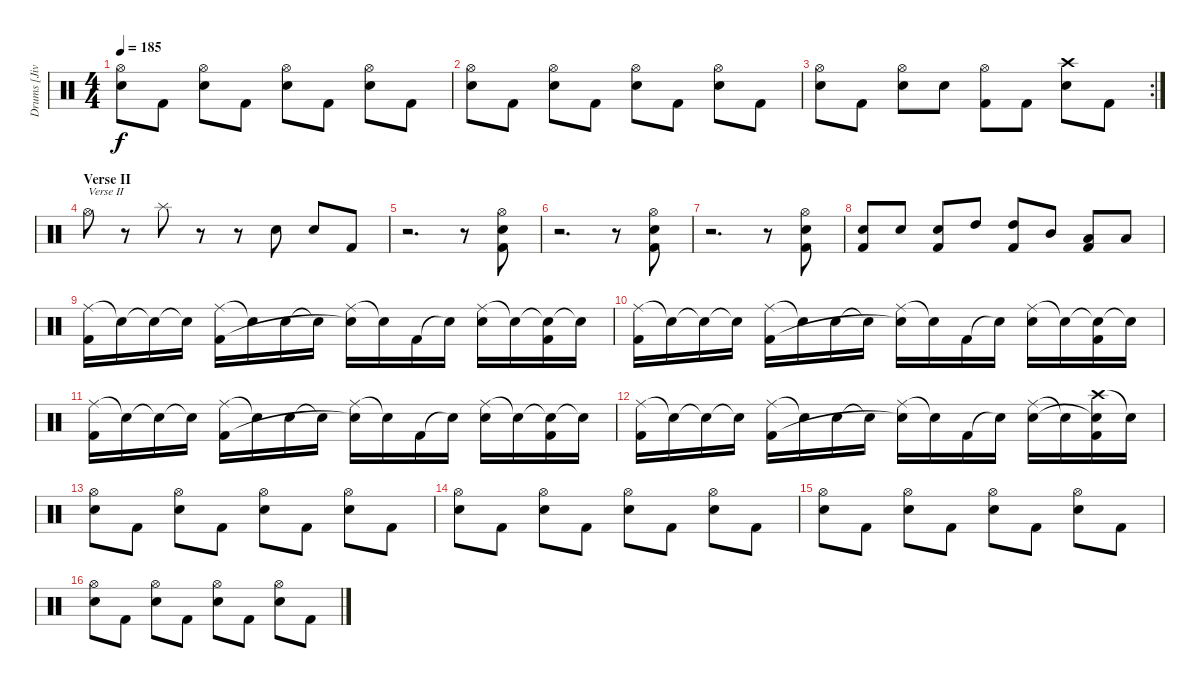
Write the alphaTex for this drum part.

\track ("Drums [Jivarp]" "Drums [Jiv") {instrument percussion}
\staff {score}
\articulation defaults
\ts (4 4)
\tempo 185
\clef neutral
\ks c
("Hi-Hat (open)" "Electric Snare (hit)").8{dy f} "Kick (hit) 2".8 ("Hi-Hat (open)" "Electric Snare (hit)").8 "Kick (hit) 2".8 ("Hi-Hat (open)" "Electric Snare (hit)").8 "Kick (hit) 2".8 ("Hi-Hat (open)" "Electric Snare (hit)").8 "Kick (hit) 2".8 |
("Hi-Hat (open)" "Electric Snare (hit)").8 "Kick (hit) 2".8 ("Hi-Hat (open)" "Electric Snare (hit)").8 "Kick (hit) 2".8 ("Hi-Hat (open)" "Electric Snare (hit)").8 "Kick (hit) 2".8 ("Hi-Hat (open)" "Electric Snare (hit)").8 "Kick (hit) 2".8 |
\rc 2
("Hi-Hat (open)" "Electric Snare (hit)").8 "Kick (hit) 2".8 ("Hi-Hat (open)" "Electric Snare (hit)").8 "Electric Snare (hit)".8 ("Hi-Hat (open)" "Kick (hit) 2").8 "Kick (hit) 2".8 ("Crash high (hit)" "Electric Snare (hit)").8 "Kick (hit) 2".8 |
\section ("" "Verse II")
"Hi-Hat (open)".8{txt "Verse II"} r.8 "Splash (hit)".8 r.8 r.8 "Electric Snare (hit)".8 "Electric Snare (hit)".8 "Kick (hit) 2".8 |
r.2{d} r.8 ("Hi-Hat (open)" "Electric Snare (hit)" "Kick (hit) 2").8 |
r.2{d} r.8 ("Hi-Hat (open)" "Electric Snare (hit)" "Kick (hit) 2").8 |
r.2{d} r.8 ("Hi-Hat (open)" "Electric Snare (hit)" "Kick (hit) 2").8 |
("Electric Snare (hit)" "Kick (hit) 2").8 "Electric Snare (hit)".8 ("Electric Snare (hit)" "Kick (hit) 2").8 "High Tom (hit)".8 ("High Tom (hit)" "Kick (hit) 2").8 "Mid Tom (hit)".8 ("Low Tom (hit)" "Kick (hit) 2").8 "Low Tom (hit)".8 |
("Ride (middle)" "Kick (hit) 2").16 "Snare (hit)"{t}.16 "Snare (hit)"{t}.16 "Snare (hit)"{t}.16 ("Ride (middle)" "Kick (hit) 2").16 "Snare (hit)"{t}.16 "Electric Snare (hit)".16 "Snare (hit)"{t}.16 ("Ride (middle)" "Snare (hit)"{t}).16 "Snare (hit)"{t}.16 "Kick (hit) 2".16 "Snare (hit)"{t}.16 ("Ride (middle)" "Electric Snare (hit)").16 "Snare (hit)"{t}.16 ("Snare (hit)"{t} "Kick (hit) 2").16 "Snare (hit)"{t}.16 |
("Ride (middle)" "Kick (hit) 2").16 "Snare (hit)"{t}.16 "Snare (hit)"{t}.16 "Snare (hit)"{t}.16 ("Ride (middle)" "Kick (hit) 2").16 "Snare (hit)"{t}.16 "Electric Snare (hit)".16 "Snare (hit)"{t}.16 ("Ride (middle)" "Snare (hit)"{t}).16 "Snare (hit)"{t}.16 "Kick (hit) 2".16 "Snare (hit)"{t}.16 ("Ride (middle)" "Electric Snare (hit)").16 "Snare (hit)"{t}.16 ("Snare (hit)"{t} "Kick (hit) 2").16 "Snare (hit)"{t}.16 |
("Ride (middle)" "Kick (hit) 2").16 "Snare (hit)"{t}.16 "Snare (hit)"{t}.16 "Snare (hit)"{t}.16 ("Ride (middle)" "Kick (hit) 2").16 "Snare (hit)"{t}.16 "Electric Snare (hit)".16 "Snare (hit)"{t}.16 ("Ride (middle)" "Snare (hit)"{t}).16 "Snare (hit)"{t}.16 "Kick (hit) 2".16 "Snare (hit)"{t}.16 ("Ride (middle)" "Electric Snare (hit)").16 "Snare (hit)"{t}.16 ("Snare (hit)"{t} "Kick (hit) 2").16 "Snare (hit)"{t}.16 |
("Ride (middle)" "Kick (hit) 2").16 "Snare (hit)"{t}.16 "Snare (hit)"{t}.16 "Snare (hit)"{t}.16 ("Ride (middle)" "Kick (hit) 2").16 "Snare (hit)"{t}.16 "Electric Snare (hit)".16 "Snare (hit)"{t}.16 ("Ride (middle)" "Snare (hit)"{t}).16 "Snare (hit)"{t}.16 "Kick (hit) 2".16 "Snare (hit)"{t}.16 ("Ride (middle)" "Electric Snare (hit)").16 "Snare (hit)"{t}.16 ("Crash high (hit)" "Snare (hit)"{t} "Kick (hit) 2").16 "Snare (hit)"{t}.16 |
("Hi-Hat (open)" "Electric Snare (hit)").8 "Kick (hit) 2".8 ("Hi-Hat (open)" "Electric Snare (hit)").8 "Kick (hit) 2".8 ("Hi-Hat (open)" "Electric Snare (hit)").8 "Kick (hit) 2".8 ("Hi-Hat (open)" "Electric Snare (hit)").8 "Kick (hit) 2".8 |
("Hi-Hat (open)" "Electric Snare (hit)").8 "Kick (hit) 2".8 ("Hi-Hat (open)" "Electric Snare (hit)").8 "Kick (hit) 2".8 ("Hi-Hat (open)" "Electric Snare (hit)").8 "Kick (hit) 2".8 ("Hi-Hat (open)" "Electric Snare (hit)").8 "Kick (hit) 2".8 |
("Hi-Hat (open)" "Electric Snare (hit)").8 "Kick (hit) 2".8 ("Hi-Hat (open)" "Electric Snare (hit)").8 "Kick (hit) 2".8 ("Hi-Hat (open)" "Electric Snare (hit)").8 "Kick (hit) 2".8 ("Hi-Hat (open)" "Electric Snare (hit)").8 "Kick (hit) 2".8 |
("Hi-Hat (open)" "Electric Snare (hit)").8 "Kick (hit) 2".8 ("Hi-Hat (open)" "Electric Snare (hit)").8 "Kick (hit) 2".8 ("Hi-Hat (open)" "Electric Snare (hit)").8 "Kick (hit) 2".8 ("Hi-Hat (open)" "Electric Snare (hit)").8 "Kick (hit) 2".8
